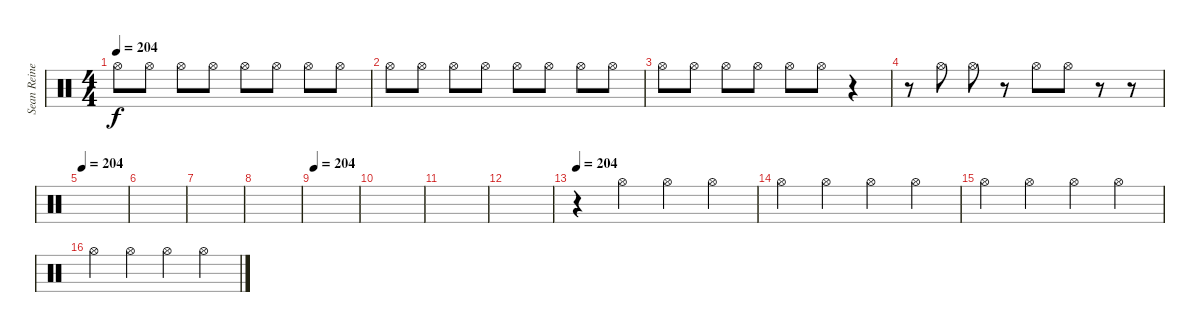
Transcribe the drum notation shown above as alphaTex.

\track ("Sean Reinert" "Sean Reine") {instrument percussion}
\staff {score}
\articulation defaults
\ts (4 4)
\tempo 204
\clef neutral
\ks c "Hi-Hat (open)".8{dy f} "Hi-Hat (open)".8 "Hi-Hat (open)".8 "Hi-Hat (open)".8 "Hi-Hat (open)".8 "Hi-Hat (open)".8 "Hi-Hat (open)".8 "Hi-Hat (open)".8
|
"Hi-Hat (open)".8 "Hi-Hat (open)".8 "Hi-Hat (open)".8 "Hi-Hat (open)".8 "Hi-Hat (open)".8 "Hi-Hat (open)".8 "Hi-Hat (open)".8 "Hi-Hat (open)".8 |
"Hi-Hat (open)".8 "Hi-Hat (open)".8 "Hi-Hat (open)".8 "Hi-Hat (open)".8 "Hi-Hat (open)".8 "Hi-Hat (open)".8 r.4 |
r.8 "Hi-Hat (open)".8 "Hi-Hat (open)".8 r.8 "Hi-Hat (open)".8 "Hi-Hat (open)".8 r.8 r.8 |
\tempo 204
|
|
|
|
\tempo 204
|
|
|
|
\tempo 204
r.4 "Hi-Hat (open)".4 "Hi-Hat (open)".4 "Hi-Hat (open)".4 |
"Hi-Hat (open)".4 "Hi-Hat (open)".4 "Hi-Hat (open)".4 "Hi-Hat (open)".4 |
"Hi-Hat (open)".4 "Hi-Hat (open)".4 "Hi-Hat (open)".4 "Hi-Hat (open)".4 |
"Hi-Hat (open)".4 "Hi-Hat (open)".4 "Hi-Hat (open)".4 "Hi-Hat (open)".4
